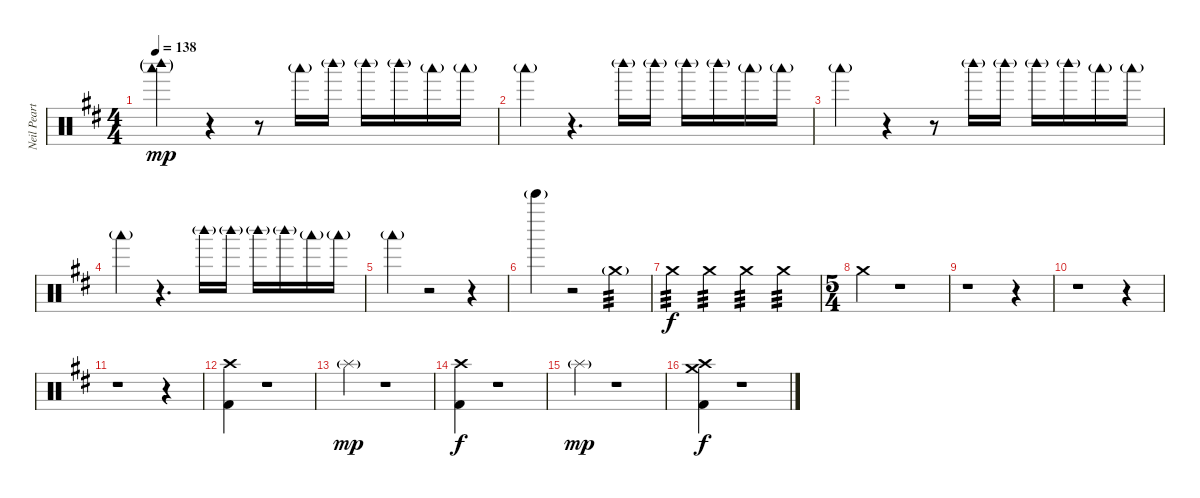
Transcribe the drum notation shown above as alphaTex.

\track ("Neil Peart" "Neil Peart") {instrument percussion}
\staff {score}
\articulation defaults
\ts (4 4)
\tempo 138
\clef neutral
\ks d
("Woodblock high (hit)"{g} "Woodblock low (hit)"{g}).4{dy mp} r.4 r.8 "Woodblock low (hit)"{g}.16 "Woodblock high (hit)"{g}.16 "Woodblock high (hit)"{g}.16 "Woodblock high (hit)"{g}.16 "Woodblock low (hit)"{g}.16 "Woodblock low (hit)"{g}.16 |
"Woodblock low (hit)"{g}.4 r.4{d} "Woodblock high (hit)"{g}.16 "Woodblock high (hit)"{g}.16 "Woodblock high (hit)"{g}.16 "Woodblock high (hit)"{g}.16 "Woodblock low (hit)"{g}.16 "Woodblock low (hit)"{g}.16 |
"Woodblock low (hit)"{g}.4 r.4 r.8 "Woodblock high (hit)"{g}.16 "Woodblock high (hit)"{g}.16 "Woodblock high (hit)"{g}.16 "Woodblock high (hit)"{g}.16 "Woodblock low (hit)"{g}.16 "Woodblock low (hit)"{g}.16 |
"Woodblock low (hit)"{g}.4 r.4{d} "Woodblock high (hit)"{g}.16 "Woodblock high (hit)"{g}.16 "Woodblock high (hit)"{g}.16 "Woodblock high (hit)"{g}.16 "Woodblock low (hit)"{g}.16 "Woodblock low (hit)"{g}.16 |
"Woodblock low (hit)"{g}.4 r.2 r.4 |
"Bell Tree (hit)"{g}.4 r.2 "Crash medium (hit)"{g}.4{tp 3 volume 3} |
"Crash medium (hit)".4{tp 3 dy f volume 5} "Crash medium (hit)".4{tp 3 volume 7} "Crash medium (hit)".4{tp 3 volume 8} "Crash medium (hit)".4{tp 3 volume 11} |
\ts (5 4)
"Crash medium (hit)".4{volume 13} r.1 |
r.1 r.4 |
r.1 r.4 |
r.1 r.4 |
("Crash high (hit)" "Kick (hit) 2").4 r.1 |
"Splash (hit)"{g}.4{dy mp} r.1 |
("Crash high (hit)" "Kick (hit) 2").4{dy f} r.1 |
"Splash (hit)"{g}.4{dy mp} r.1 |
("Crash high (hit)" "Crash medium (hit)" "Kick (hit) 2").4{dy f} r.1
